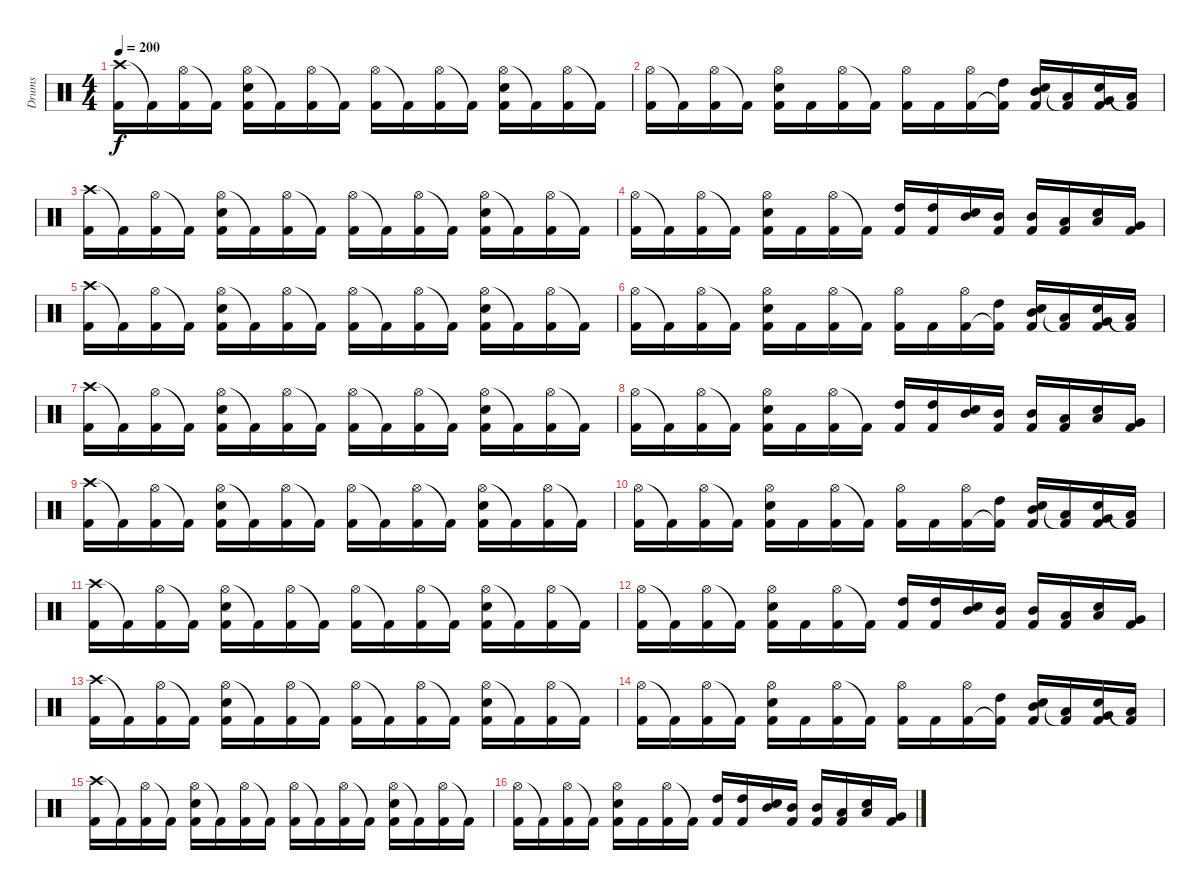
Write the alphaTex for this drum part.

\track ("Drums" "Drums") {instrument percussion}
\staff {score}
\articulation defaults
\ts (4 4)
\tempo 200
\clef neutral
\ks c
("Crash high (hit)" "Kick (hit) 2").16{dy f} "Kick (hit) 2"{t}.16 ("Hi-Hat (open)" "Kick (hit) 2").16 "Kick (hit) 2"{t}.16 ("Hi-Hat (open)" "Electric Snare (hit)" "Kick (hit) 2").16 "Kick (hit) 2"{t}.16 ("Hi-Hat (open)" "Kick (hit) 2").16 "Kick (hit) 2"{t}.16 ("Hi-Hat (open)" "Kick (hit) 2").16 "Kick (hit) 2"{t}.16 ("Hi-Hat (open)" "Kick (hit) 2").16 "Kick (hit) 2"{t}.16 ("Hi-Hat (open)" "Electric Snare (hit)" "Kick (hit) 2").16 "Kick (hit) 2"{t}.16 ("Hi-Hat (open)" "Kick (hit) 2").16 "Kick (hit) 2"{t}.16 |
("Hi-Hat (open)" "Kick (hit) 2").16 "Kick (hit) 2"{t}.16 ("Hi-Hat (open)" "Kick (hit) 2").16 "Kick (hit) 2"{t}.16 ("Hi-Hat (open)" "Electric Snare (hit)" "Kick (hit) 2").16 "Kick (hit) 2".16 ("Hi-Hat (open)" "Kick (hit) 2").16 "Kick (hit) 2"{t}.16 ("Hi-Hat (open)" "Kick (hit) 2").16 "Kick (hit) 2".16 ("Hi-Hat (open)" "Kick (hit) 2").16 ("High Tom (hit)" "Kick (hit) 2"{t}).16 ("Mid Tom (hit)" "Electric Snare (hit)" "Kick (hit) 2").16 ("Low Tom (hit)" "Kick (hit) 2"{t}).16 ("Very Low Tom (hit)" "Electric Snare (hit)" "Kick (hit) 2").16 ("Low Floor Tom (hit)" "Kick (hit) 2"{t}).16 |
("Crash high (hit)" "Kick (hit) 2").16 "Kick (hit) 2"{t}.16 ("Hi-Hat (open)" "Kick (hit) 2").16 "Kick (hit) 2"{t}.16 ("Hi-Hat (open)" "Electric Snare (hit)" "Kick (hit) 2").16 "Kick (hit) 2"{t}.16 ("Hi-Hat (open)" "Kick (hit) 2").16 "Kick (hit) 2"{t}.16 ("Hi-Hat (open)" "Kick (hit) 2").16 "Kick (hit) 2"{t}.16 ("Hi-Hat (open)" "Kick (hit) 2").16 "Kick (hit) 2"{t}.16 ("Hi-Hat (open)" "Electric Snare (hit)" "Kick (hit) 2").16 "Kick (hit) 2"{t}.16 ("Hi-Hat (open)" "Kick (hit) 2").16 "Kick (hit) 2"{t}.16 |
("Hi-Hat (open)" "Kick (hit) 2").16 "Kick (hit) 2"{t}.16 ("Hi-Hat (open)" "Kick (hit) 2").16 "Kick (hit) 2"{t}.16 ("Hi-Hat (open)" "Electric Snare (hit)" "Kick (hit) 2").16 "Kick (hit) 2".16 ("Hi-Hat (open)" "Kick (hit) 2").16 "Kick (hit) 2"{t}.16 ("High Tom (hit)" "Kick (hit) 2").16 ("High Tom (hit)" "Kick (hit) 2").16 ("Mid Tom (hit)" "Electric Snare (hit)").16 ("Mid Tom (hit)" "Kick (hit) 2").16 ("Mid Tom (hit)" "Kick (hit) 2").16 ("Low Tom (hit)" "Kick (hit) 2").16 ("Low Tom (hit)" "Electric Snare (hit)").16 ("Very Low Tom (hit)" "Kick (hit) 2").16 |
("Crash high (hit)" "Kick (hit) 2").16 "Kick (hit) 2"{t}.16 ("Hi-Hat (open)" "Kick (hit) 2").16 "Kick (hit) 2"{t}.16 ("Hi-Hat (open)" "Electric Snare (hit)" "Kick (hit) 2").16 "Kick (hit) 2"{t}.16 ("Hi-Hat (open)" "Kick (hit) 2").16 "Kick (hit) 2"{t}.16 ("Hi-Hat (open)" "Kick (hit) 2").16 "Kick (hit) 2"{t}.16 ("Hi-Hat (open)" "Kick (hit) 2").16 "Kick (hit) 2"{t}.16 ("Hi-Hat (open)" "Electric Snare (hit)" "Kick (hit) 2").16 "Kick (hit) 2"{t}.16 ("Hi-Hat (open)" "Kick (hit) 2").16 "Kick (hit) 2"{t}.16 |
("Hi-Hat (open)" "Kick (hit) 2").16 "Kick (hit) 2"{t}.16 ("Hi-Hat (open)" "Kick (hit) 2").16 "Kick (hit) 2"{t}.16 ("Hi-Hat (open)" "Electric Snare (hit)" "Kick (hit) 2").16 "Kick (hit) 2".16 ("Hi-Hat (open)" "Kick (hit) 2").16 "Kick (hit) 2"{t}.16 ("Hi-Hat (open)" "Kick (hit) 2").16 "Kick (hit) 2".16 ("Hi-Hat (open)" "Kick (hit) 2").16 ("High Tom (hit)" "Kick (hit) 2"{t}).16 ("Mid Tom (hit)" "Electric Snare (hit)" "Kick (hit) 2").16 ("Low Tom (hit)" "Kick (hit) 2"{t}).16 ("Very Low Tom (hit)" "Electric Snare (hit)" "Kick (hit) 2").16 ("Low Floor Tom (hit)" "Kick (hit) 2"{t}).16 |
("Crash high (hit)" "Kick (hit) 2").16 "Kick (hit) 2"{t}.16 ("Hi-Hat (open)" "Kick (hit) 2").16 "Kick (hit) 2"{t}.16 ("Hi-Hat (open)" "Electric Snare (hit)" "Kick (hit) 2").16 "Kick (hit) 2"{t}.16 ("Hi-Hat (open)" "Kick (hit) 2").16 "Kick (hit) 2"{t}.16 ("Hi-Hat (open)" "Kick (hit) 2").16 "Kick (hit) 2"{t}.16 ("Hi-Hat (open)" "Kick (hit) 2").16 "Kick (hit) 2"{t}.16 ("Hi-Hat (open)" "Electric Snare (hit)" "Kick (hit) 2").16 "Kick (hit) 2"{t}.16 ("Hi-Hat (open)" "Kick (hit) 2").16 "Kick (hit) 2"{t}.16 |
("Hi-Hat (open)" "Kick (hit) 2").16 "Kick (hit) 2"{t}.16 ("Hi-Hat (open)" "Kick (hit) 2").16 "Kick (hit) 2"{t}.16 ("Hi-Hat (open)" "Electric Snare (hit)" "Kick (hit) 2").16 "Kick (hit) 2".16 ("Hi-Hat (open)" "Kick (hit) 2").16 "Kick (hit) 2"{t}.16 ("High Tom (hit)" "Kick (hit) 2").16 ("High Tom (hit)" "Kick (hit) 2").16 ("Mid Tom (hit)" "Electric Snare (hit)").16 ("Mid Tom (hit)" "Kick (hit) 2").16 ("Mid Tom (hit)" "Kick (hit) 2").16 ("Low Tom (hit)" "Kick (hit) 2").16 ("Low Tom (hit)" "Electric Snare (hit)").16 ("Very Low Tom (hit)" "Kick (hit) 2").16 |
("Crash high (hit)" "Kick (hit) 2").16 "Kick (hit) 2"{t}.16 ("Hi-Hat (open)" "Kick (hit) 2").16 "Kick (hit) 2"{t}.16 ("Hi-Hat (open)" "Electric Snare (hit)" "Kick (hit) 2").16 "Kick (hit) 2"{t}.16 ("Hi-Hat (open)" "Kick (hit) 2").16 "Kick (hit) 2"{t}.16 ("Hi-Hat (open)" "Kick (hit) 2").16 "Kick (hit) 2"{t}.16 ("Hi-Hat (open)" "Kick (hit) 2").16 "Kick (hit) 2"{t}.16 ("Hi-Hat (open)" "Electric Snare (hit)" "Kick (hit) 2").16 "Kick (hit) 2"{t}.16 ("Hi-Hat (open)" "Kick (hit) 2").16 "Kick (hit) 2"{t}.16 |
("Hi-Hat (open)" "Kick (hit) 2").16 "Kick (hit) 2"{t}.16 ("Hi-Hat (open)" "Kick (hit) 2").16 "Kick (hit) 2"{t}.16 ("Hi-Hat (open)" "Electric Snare (hit)" "Kick (hit) 2").16 "Kick (hit) 2".16 ("Hi-Hat (open)" "Kick (hit) 2").16 "Kick (hit) 2"{t}.16 ("Hi-Hat (open)" "Kick (hit) 2").16 "Kick (hit) 2".16 ("Hi-Hat (open)" "Kick (hit) 2").16 ("High Tom (hit)" "Kick (hit) 2"{t}).16 ("Mid Tom (hit)" "Electric Snare (hit)" "Kick (hit) 2").16 ("Low Tom (hit)" "Kick (hit) 2"{t}).16 ("Very Low Tom (hit)" "Electric Snare (hit)" "Kick (hit) 2").16 ("Low Floor Tom (hit)" "Kick (hit) 2"{t}).16 |
("Crash high (hit)" "Kick (hit) 2").16 "Kick (hit) 2"{t}.16 ("Hi-Hat (open)" "Kick (hit) 2").16 "Kick (hit) 2"{t}.16 ("Hi-Hat (open)" "Electric Snare (hit)" "Kick (hit) 2").16 "Kick (hit) 2"{t}.16 ("Hi-Hat (open)" "Kick (hit) 2").16 "Kick (hit) 2"{t}.16 ("Hi-Hat (open)" "Kick (hit) 2").16 "Kick (hit) 2"{t}.16 ("Hi-Hat (open)" "Kick (hit) 2").16 "Kick (hit) 2"{t}.16 ("Hi-Hat (open)" "Electric Snare (hit)" "Kick (hit) 2").16 "Kick (hit) 2"{t}.16 ("Hi-Hat (open)" "Kick (hit) 2").16 "Kick (hit) 2"{t}.16 |
("Hi-Hat (open)" "Kick (hit) 2").16 "Kick (hit) 2"{t}.16 ("Hi-Hat (open)" "Kick (hit) 2").16 "Kick (hit) 2"{t}.16 ("Hi-Hat (open)" "Electric Snare (hit)" "Kick (hit) 2").16 "Kick (hit) 2".16 ("Hi-Hat (open)" "Kick (hit) 2").16 "Kick (hit) 2"{t}.16 ("High Tom (hit)" "Kick (hit) 2").16 ("High Tom (hit)" "Kick (hit) 2").16 ("Mid Tom (hit)" "Electric Snare (hit)").16 ("Mid Tom (hit)" "Kick (hit) 2").16 ("Mid Tom (hit)" "Kick (hit) 2").16 ("Low Tom (hit)" "Kick (hit) 2").16 ("Low Tom (hit)" "Electric Snare (hit)").16 ("Very Low Tom (hit)" "Kick (hit) 2").16 |
("Crash high (hit)" "Kick (hit) 2").16 "Kick (hit) 2"{t}.16 ("Hi-Hat (open)" "Kick (hit) 2").16 "Kick (hit) 2"{t}.16 ("Hi-Hat (open)" "Electric Snare (hit)" "Kick (hit) 2").16 "Kick (hit) 2"{t}.16 ("Hi-Hat (open)" "Kick (hit) 2").16 "Kick (hit) 2"{t}.16 ("Hi-Hat (open)" "Kick (hit) 2").16 "Kick (hit) 2"{t}.16 ("Hi-Hat (open)" "Kick (hit) 2").16 "Kick (hit) 2"{t}.16 ("Hi-Hat (open)" "Electric Snare (hit)" "Kick (hit) 2").16 "Kick (hit) 2"{t}.16 ("Hi-Hat (open)" "Kick (hit) 2").16 "Kick (hit) 2"{t}.16 |
("Hi-Hat (open)" "Kick (hit) 2").16 "Kick (hit) 2"{t}.16 ("Hi-Hat (open)" "Kick (hit) 2").16 "Kick (hit) 2"{t}.16 ("Hi-Hat (open)" "Electric Snare (hit)" "Kick (hit) 2").16 "Kick (hit) 2".16 ("Hi-Hat (open)" "Kick (hit) 2").16 "Kick (hit) 2"{t}.16 ("Hi-Hat (open)" "Kick (hit) 2").16 "Kick (hit) 2".16 ("Hi-Hat (open)" "Kick (hit) 2").16 ("High Tom (hit)" "Kick (hit) 2"{t}).16 ("Mid Tom (hit)" "Electric Snare (hit)" "Kick (hit) 2").16 ("Low Tom (hit)" "Kick (hit) 2"{t}).16 ("Very Low Tom (hit)" "Electric Snare (hit)" "Kick (hit) 2").16 ("Low Floor Tom (hit)" "Kick (hit) 2"{t}).16 |
("Crash high (hit)" "Kick (hit) 2").16 "Kick (hit) 2"{t}.16 ("Hi-Hat (open)" "Kick (hit) 2").16 "Kick (hit) 2"{t}.16 ("Hi-Hat (open)" "Electric Snare (hit)" "Kick (hit) 2").16 "Kick (hit) 2"{t}.16 ("Hi-Hat (open)" "Kick (hit) 2").16 "Kick (hit) 2"{t}.16 ("Hi-Hat (open)" "Kick (hit) 2").16 "Kick (hit) 2"{t}.16 ("Hi-Hat (open)" "Kick (hit) 2").16 "Kick (hit) 2"{t}.16 ("Hi-Hat (open)" "Electric Snare (hit)" "Kick (hit) 2").16 "Kick (hit) 2"{t}.16 ("Hi-Hat (open)" "Kick (hit) 2").16 "Kick (hit) 2"{t}.16 |
("Hi-Hat (open)" "Kick (hit) 2").16 "Kick (hit) 2"{t}.16 ("Hi-Hat (open)" "Kick (hit) 2").16 "Kick (hit) 2"{t}.16 ("Hi-Hat (open)" "Electric Snare (hit)" "Kick (hit) 2").16 "Kick (hit) 2".16 ("Hi-Hat (open)" "Kick (hit) 2").16 "Kick (hit) 2"{t}.16 ("High Tom (hit)" "Kick (hit) 2").16 ("High Tom (hit)" "Kick (hit) 2").16 ("Mid Tom (hit)" "Electric Snare (hit)").16 ("Mid Tom (hit)" "Kick (hit) 2").16 ("Mid Tom (hit)" "Kick (hit) 2").16 ("Low Tom (hit)" "Kick (hit) 2").16 ("Low Tom (hit)" "Electric Snare (hit)").16 ("Very Low Tom (hit)" "Kick (hit) 2").16
